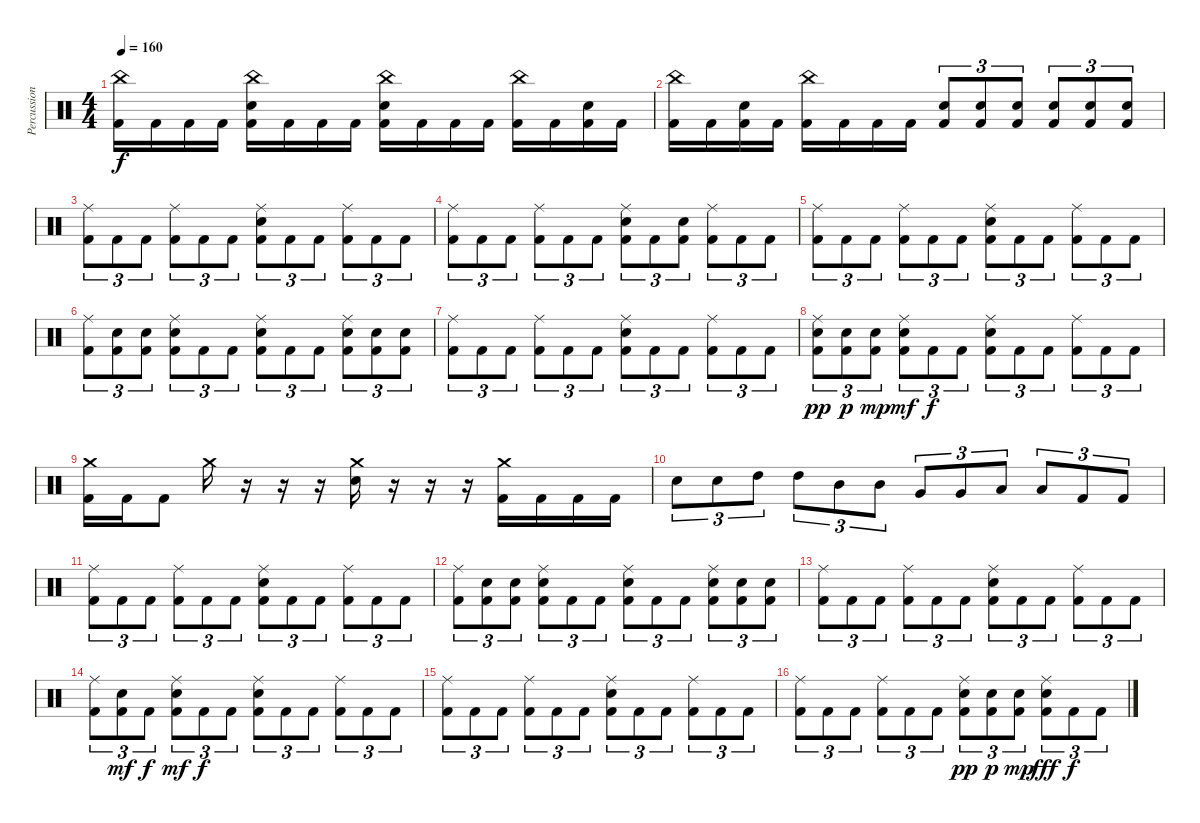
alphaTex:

\track ("Percussion" "Percussion") {instrument percussion}
\staff {score}
\articulation defaults
\ts (4 4)
\tempo 160
\clef neutral
\ks c
("China (hit)" "Kick (hit) 2").16{dy f} "Kick (hit) 2".16 "Kick (hit) 2".16 "Kick (hit) 2".16 ("China (hit)" "Snare (hit) 2" "Kick (hit) 2").16 "Kick (hit) 2".16 "Kick (hit) 2".16 "Kick (hit) 2".16 ("China (hit)" "Snare (hit) 2" "Kick (hit) 2").16 "Kick (hit) 2".16 "Kick (hit) 2".16 "Kick (hit) 2".16 ("China (hit)" "Kick (hit) 2").16 "Kick (hit) 2".16 ("Snare (hit) 2" "Kick (hit) 2").16 "Kick (hit) 2".16 |
("China (hit)" "Kick (hit) 2").16 "Kick (hit) 2".16 ("Snare (hit) 2" "Kick (hit) 2").16 "Kick (hit) 2".16 ("China (hit)" "Kick (hit) 2").16 "Kick (hit) 2".16 "Kick (hit) 2".16 "Kick (hit) 2".16 ("Snare (hit) 2" "Kick (hit) 2").8{tu (3 2)} ("Snare (hit) 2" "Kick (hit) 2").8{tu (3 2)} ("Snare (hit) 2" "Kick (hit) 2").8{tu (3 2)} ("Snare (hit) 2" "Kick (hit) 2").8{tu (3 2)} ("Snare (hit) 2" "Kick (hit) 2").8{tu (3 2)} ("Snare (hit) 2" "Kick (hit) 2").8{tu (3 2)} |
("Ride (middle)" "Kick (hit) 2").8{tu (3 2)} "Kick (hit) 2".8{tu (3 2)} "Kick (hit) 2".8{tu (3 2)} ("Ride (middle)" "Kick (hit) 2").8{tu (3 2)} "Kick (hit) 2".8{tu (3 2)} "Kick (hit) 2".8{tu (3 2)} ("Ride (middle)" "Snare (hit) 2" "Kick (hit) 2").8{tu (3 2)} "Kick (hit) 2".8{tu (3 2)} "Kick (hit) 2".8{tu (3 2)} ("Ride (middle)" "Kick (hit) 2").8{tu (3 2)} "Kick (hit) 2".8{tu (3 2)} "Kick (hit) 2".8{tu (3 2)} |
("Ride (middle)" "Kick (hit) 2").8{tu (3 2)} "Kick (hit) 2".8{tu (3 2)} "Kick (hit) 2".8{tu (3 2)} ("Ride (middle)" "Kick (hit) 2").8{tu (3 2)} "Kick (hit) 2".8{tu (3 2)} "Kick (hit) 2".8{tu (3 2)} ("Ride (middle)" "Snare (hit) 2" "Kick (hit) 2").8{tu (3 2)} "Kick (hit) 2".8{tu (3 2)} ("Snare (hit) 2" "Kick (hit) 2").8{tu (3 2)} ("Ride (middle)" "Kick (hit) 2").8{tu (3 2)} "Kick (hit) 2".8{tu (3 2)} "Kick (hit) 2".8{tu (3 2)} |
("Ride (middle)" "Kick (hit) 2").8{tu (3 2)} "Kick (hit) 2".8{tu (3 2)} "Kick (hit) 2".8{tu (3 2)} ("Ride (middle)" "Kick (hit) 2").8{tu (3 2)} "Kick (hit) 2".8{tu (3 2)} "Kick (hit) 2".8{tu (3 2)} ("Ride (middle)" "Snare (hit) 2" "Kick (hit) 2").8{tu (3 2)} "Kick (hit) 2".8{tu (3 2)} "Kick (hit) 2".8{tu (3 2)} ("Ride (middle)" "Kick (hit) 2").8{tu (3 2)} "Kick (hit) 2".8{tu (3 2)} "Kick (hit) 2".8{tu (3 2)} |
("Ride (middle)" "Kick (hit) 2").8{tu (3 2)} ("Snare (hit) 2" "Kick (hit) 2").8{tu (3 2)} ("Snare (hit) 2" "Kick (hit) 2").8{tu (3 2)} ("Ride (middle)" "Snare (hit) 2" "Kick (hit) 2").8{tu (3 2)} "Kick (hit) 2".8{tu (3 2)} "Kick (hit) 2".8{tu (3 2)} ("Ride (middle)" "Snare (hit) 2" "Kick (hit) 2").8{tu (3 2)} "Kick (hit) 2".8{tu (3 2)} "Kick (hit) 2".8{tu (3 2)} ("Ride (middle)" "Snare (hit) 2" "Kick (hit) 2").8{tu (3 2)} ("Snare (hit) 2" "Kick (hit) 2").8{tu (3 2)} ("Snare (hit) 2" "Kick (hit) 2").8{tu (3 2)} |
("Ride (middle)" "Kick (hit) 2").8{tu (3 2)} "Kick (hit) 2".8{tu (3 2)} "Kick (hit) 2".8{tu (3 2)} ("Ride (middle)" "Kick (hit) 2").8{tu (3 2)} "Kick (hit) 2".8{tu (3 2)} "Kick (hit) 2".8{tu (3 2)} ("Ride (middle)" "Snare (hit) 2" "Kick (hit) 2").8{tu (3 2)} "Kick (hit) 2".8{tu (3 2)} "Kick (hit) 2".8{tu (3 2)} ("Ride (middle)" "Kick (hit) 2").8{tu (3 2)} "Kick (hit) 2".8{tu (3 2)} "Kick (hit) 2".8{tu (3 2)} |
("Ride (middle)" "Snare (hit) 2" "Kick (hit) 2").8{tu (3 2) dy pp} ("Snare (hit) 2" "Kick (hit) 2").8{tu (3 2) dy p} ("Snare (hit) 2" "Kick (hit) 2").8{tu (3 2) dy mp} ("Ride (middle)" "Snare (hit) 2" "Kick (hit) 2").8{tu (3 2) dy mf} "Kick (hit) 2".8{tu (3 2) dy f} "Kick (hit) 2".8{tu (3 2)} ("Ride (middle)" "Snare (hit) 2" "Kick (hit) 2").8{tu (3 2)} "Kick (hit) 2".8{tu (3 2)} "Kick (hit) 2".8{tu (3 2)} ("Ride (middle)" "Kick (hit) 2").8{tu (3 2)} "Kick (hit) 2".8{tu (3 2)} "Kick (hit) 2".8{tu (3 2)} |
("Crash medium (hit)" "Kick (hit) 2").16 "Kick (hit) 2".16 "Kick (hit) 2".8 "Crash medium (hit)".16 r.16 r.16 r.16 ("Crash medium (hit)" "Snare (hit) 2").16 r.16 r.16 r.16 ("Crash medium (hit)" "Kick (hit) 2").16 "Kick (hit) 2".16 "Kick (hit) 2".16 "Kick (hit) 2".16 |
"Snare (hit) 2".8{tu (3 2)} "Snare (hit) 2".8{tu (3 2)} "High Tom (hit)".8{tu (3 2)} "High Tom (hit)".8{tu (3 2)} "Mid Tom (hit)".8{tu (3 2)} "Mid Tom (hit)".8{tu (3 2)} "Very Low Tom (hit)".8{tu (3 2)} "Very Low Tom (hit)".8{tu (3 2)} "Low Floor Tom (hit)".8{tu (3 2)} "Low Floor Tom (hit)".8{tu (3 2)} "Kick (hit) 2".8{tu (3 2)} "Kick (hit) 2".8{tu (3 2)} |
("Ride (middle)" "Kick (hit) 2").8{tu (3 2)} "Kick (hit) 2".8{tu (3 2)} "Kick (hit) 2".8{tu (3 2)} ("Ride (middle)" "Kick (hit) 2").8{tu (3 2)} "Kick (hit) 2".8{tu (3 2)} "Kick (hit) 2".8{tu (3 2)} ("Ride (middle)" "Snare (hit) 2" "Kick (hit) 2").8{tu (3 2)} "Kick (hit) 2".8{tu (3 2)} "Kick (hit) 2".8{tu (3 2)} ("Ride (middle)" "Kick (hit) 2").8{tu (3 2)} "Kick (hit) 2".8{tu (3 2)} "Kick (hit) 2".8{tu (3 2)} |
("Ride (middle)" "Kick (hit) 2").8{tu (3 2)} ("Snare (hit) 2" "Kick (hit) 2").8{tu (3 2)} ("Snare (hit) 2" "Kick (hit) 2").8{tu (3 2)} ("Ride (middle)" "Snare (hit) 2" "Kick (hit) 2").8{tu (3 2)} "Kick (hit) 2".8{tu (3 2)} "Kick (hit) 2".8{tu (3 2)} ("Ride (middle)" "Snare (hit) 2" "Kick (hit) 2").8{tu (3 2)} "Kick (hit) 2".8{tu (3 2)} "Kick (hit) 2".8{tu (3 2)} ("Ride (middle)" "Snare (hit) 2" "Kick (hit) 2").8{tu (3 2)} ("Snare (hit) 2" "Kick (hit) 2").8{tu (3 2)} ("Snare (hit) 2" "Kick (hit) 2").8{tu (3 2)} |
("Ride (middle)" "Kick (hit) 2").8{tu (3 2)} "Kick (hit) 2".8{tu (3 2)} "Kick (hit) 2".8{tu (3 2)} ("Ride (middle)" "Kick (hit) 2").8{tu (3 2)} "Kick (hit) 2".8{tu (3 2)} "Kick (hit) 2".8{tu (3 2)} ("Ride (middle)" "Snare (hit) 2" "Kick (hit) 2").8{tu (3 2)} "Kick (hit) 2".8{tu (3 2)} "Kick (hit) 2".8{tu (3 2)} ("Ride (middle)" "Kick (hit) 2").8{tu (3 2)} "Kick (hit) 2".8{tu (3 2)} "Kick (hit) 2".8{tu (3 2)} |
("Ride (middle)" "Kick (hit) 2").8{tu (3 2)} ("Snare (hit) 2" "Kick (hit) 2").8{tu (3 2) dy mf} "Kick (hit) 2".8{tu (3 2) dy f} ("Ride (middle)" "Snare (hit) 2" "Kick (hit) 2").8{tu (3 2) dy mf} "Kick (hit) 2".8{tu (3 2) dy f} "Kick (hit) 2".8{tu (3 2)} ("Ride (middle)" "Snare (hit) 2" "Kick (hit) 2").8{tu (3 2)} "Kick (hit) 2".8{tu (3 2)} "Kick (hit) 2".8{tu (3 2)} ("Ride (middle)" "Kick (hit) 2").8{tu (3 2)} "Kick (hit) 2".8{tu (3 2)} "Kick (hit) 2".8{tu (3 2)} |
("Ride (middle)" "Kick (hit) 2").8{tu (3 2)} "Kick (hit) 2".8{tu (3 2)} "Kick (hit) 2".8{tu (3 2)} ("Ride (middle)" "Kick (hit) 2").8{tu (3 2)} "Kick (hit) 2".8{tu (3 2)} "Kick (hit) 2".8{tu (3 2)} ("Ride (middle)" "Snare (hit) 2" "Kick (hit) 2").8{tu (3 2)} "Kick (hit) 2".8{tu (3 2)} "Kick (hit) 2".8{tu (3 2)} ("Ride (middle)" "Kick (hit) 2").8{tu (3 2)} "Kick (hit) 2".8{tu (3 2)} "Kick (hit) 2".8{tu (3 2)} |
("Ride (middle)" "Kick (hit) 2").8{tu (3 2)} "Kick (hit) 2".8{tu (3 2)} "Kick (hit) 2".8{tu (3 2)} ("Ride (middle)" "Kick (hit) 2").8{tu (3 2)} "Kick (hit) 2".8{tu (3 2)} "Kick (hit) 2".8{tu (3 2)} ("Ride (middle)" "Snare (hit) 2" "Kick (hit) 2").8{tu (3 2) dy pp} ("Snare (hit) 2" "Kick (hit) 2").8{tu (3 2) dy p} ("Snare (hit) 2" "Kick (hit) 2").8{tu (3 2) dy mp} ("Ride (middle)" "Snare (hit) 2" "Kick (hit) 2").8{tu (3 2) dy fff} "Kick (hit) 2".8{tu (3 2) dy f} "Kick (hit) 2".8{tu (3 2)}
